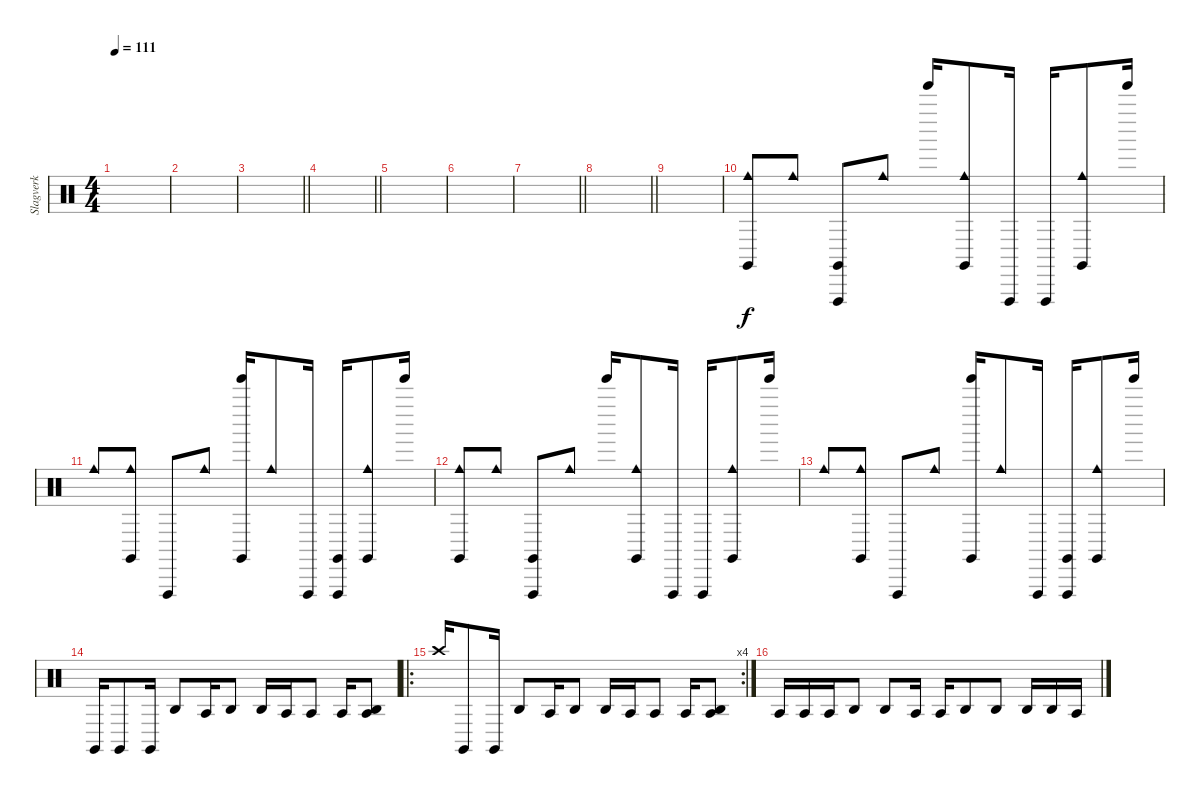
\track ("Slagverk" "Slagverk") {instrument percussion}
\staff {score}
\articulation defaults
\ts (4 4)
\tempo 111
\clef neutral
\ks c
|
|
\barLineRight lightlight
|
\barLineRight lightlight
|
|
|
\barLineRight lightlight
|
\barLineRight lightlight
|
|
("Cowbell medium (hit)" "Claves (hit)").8 "Cowbell medium (hit)".8 ("Vibraslap (hit)" "Claves (hit)").8 "Cowbell medium (hit)".8 "Tinkle Bell (hit)".16 ("Cowbell medium (hit)" "Claves (hit)").8 "Vibraslap (hit)".16 "Vibraslap (hit)".16 ("Cowbell medium (hit)" "Claves (hit)").8 "Tinkle Bell (hit)".16 |
"Cowbell medium (hit)".8 ("Cowbell medium (hit)" "Claves (hit)").8 "Vibraslap (hit)".8 "Cowbell medium (hit)".8 ("Tinkle Bell (hit)" "Claves (hit)").16 "Cowbell medium (hit)".8 "Vibraslap (hit)".16 ("Vibraslap (hit)" "Claves (hit)").16 ("Cowbell medium (hit)" "Claves (hit)").8 "Tinkle Bell (hit)".16 |
("Cowbell medium (hit)" "Claves (hit)").8 "Cowbell medium (hit)".8 ("Vibraslap (hit)" "Claves (hit)").8 "Cowbell medium (hit)".8 "Tinkle Bell (hit)".16 ("Cowbell medium (hit)" "Claves (hit)").8 "Vibraslap (hit)".16 "Vibraslap (hit)".16 ("Cowbell medium (hit)" "Claves (hit)").8 "Tinkle Bell (hit)".16 |
"Cowbell medium (hit)".8 ("Cowbell medium (hit)" "Claves (hit)").8 "Vibraslap (hit)".8 "Cowbell medium (hit)".8 ("Tinkle Bell (hit)" "Claves (hit)").16 "Cowbell medium (hit)".8 "Vibraslap (hit)".16 ("Vibraslap (hit)" "Claves (hit)").16 ("Cowbell medium (hit)" "Claves (hit)").8 "Tinkle Bell (hit)".16 |
"Claves (hit)".16 "Claves (hit)".8 "Claves (hit)".16 "Agogo high (hit)".8 "Agogo tow (hit)".16 "Agogo high (hit)".8 "Agogo high (hit)".16 "Agogo tow (hit)".16 "Agogo tow (hit)".8 "Agogo tow (hit)".16 ("Agogo high (hit)" "Agogo tow (hit)").8 |
\ro
\rc 4 "Crash high (hit)".16 "Claves (hit)".8 "Claves (hit)".16 "Agogo high (hit)".8 "Agogo tow (hit)".16 "Agogo high (hit)".8 "Agogo high (hit)".16 "Agogo tow (hit)".16 "Agogo tow (hit)".8 "Agogo tow (hit)".16
("Agogo high (hit)" "Agogo tow (hit)").8 |
"Agogo tow (hit)".16 "Agogo tow (hit)".16 "Agogo tow (hit)".16 "Agogo high (hit)".8 "Agogo high (hit)".8 "Agogo tow (hit)".16 "Agogo tow (hit)".16 "Agogo high (hit)".8 "Agogo high (hit)".8 "Agogo high (hit)".16 "Agogo high (hit)".16 "Agogo tow (hit)".16
